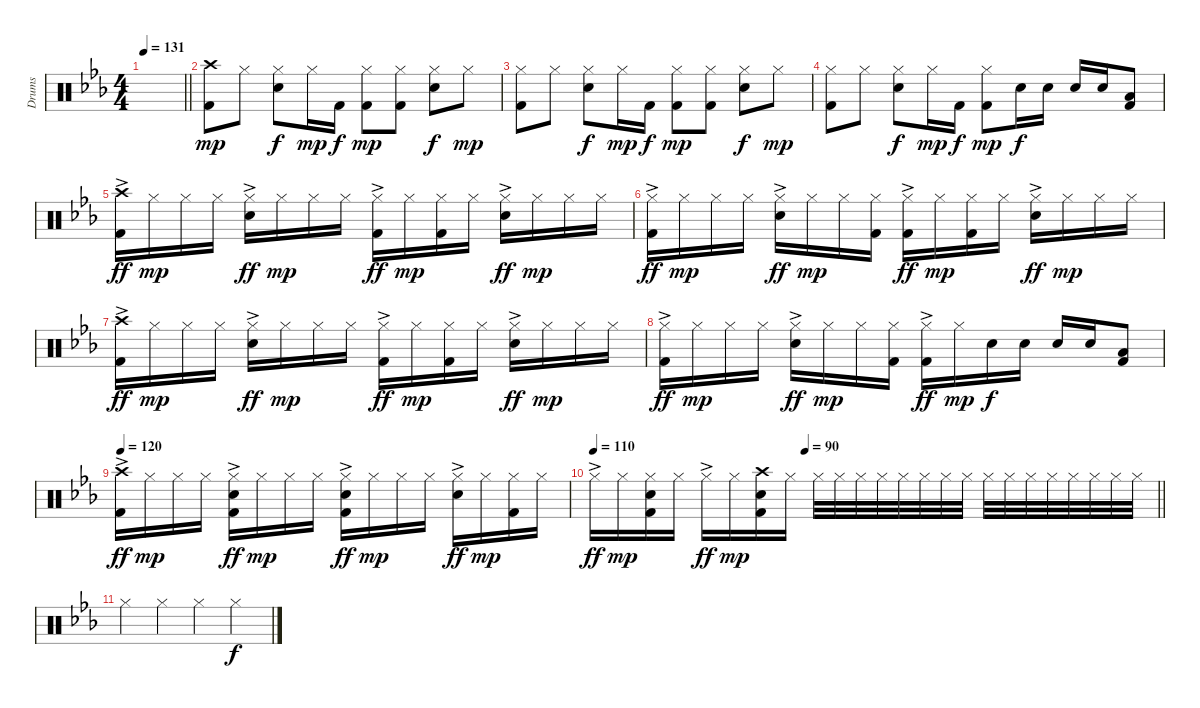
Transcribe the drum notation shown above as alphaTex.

\track ("Drums" "Drums") {instrument percussion}
\staff {score}
\articulation defaults
\ts (4 4)
\tempo 131
\clef neutral
\barLineRight lightlight
\ks eb
|
("Crash high (hit)" "Kick (hit) 2").8{dy mp} "Hi-Hat (closed)".8 ("Hi-Hat (closed)" "Snare (hit) 2").8{dy f} "Hi-Hat (closed)".16{dy mp} "Kick (hit) 2".16{dy f} ("Hi-Hat (closed)" "Kick (hit) 2").8{dy mp} ("Hi-Hat (closed)" "Kick (hit) 2").8 ("Hi-Hat (closed)" "Snare (hit) 2").8{dy f} "Hi-Hat (closed)".8{dy mp} |
("Hi-Hat (closed)" "Kick (hit) 2").8 "Hi-Hat (closed)".8 ("Hi-Hat (closed)" "Snare (hit) 2").8{dy f} "Hi-Hat (closed)".16{dy mp} "Kick (hit) 2".16{dy f} ("Hi-Hat (closed)" "Kick (hit) 2").8{dy mp} ("Hi-Hat (closed)" "Kick (hit) 2").8 ("Hi-Hat (closed)" "Snare (hit) 2").8{dy f} "Hi-Hat (closed)".8{dy mp} |
("Hi-Hat (closed)" "Kick (hit) 2").8 "Hi-Hat (closed)".8 ("Hi-Hat (closed)" "Snare (hit) 2").8{dy f} "Hi-Hat (closed)".16{dy mp} "Kick (hit) 2".16{dy f} ("Hi-Hat (closed)" "Kick (hit) 2").8{dy mp} "Snare (hit) 2".16{dy f} "Snare (hit) 2".16 "Snare (hit) 2".16 "Snare (hit) 2".16 ("Low Tom (hit)" "Kick (hit) 2").8 |
("Crash high (hit)"{ac} "Kick (hit) 2").16{dy ff} "Hi-Hat (closed)".16{dy mp} "Hi-Hat (closed)".16 "Hi-Hat (closed)".16 ("Hi-Hat (closed)"{ac} "Snare (hit) 2").16{dy ff} "Hi-Hat (closed)".16{dy mp} "Hi-Hat (closed)".16 "Hi-Hat (closed)".16 ("Hi-Hat (closed)"{ac} "Kick (hit) 2").16{dy ff} "Hi-Hat (closed)".16{dy mp} ("Hi-Hat (closed)" "Kick (hit) 2").16 "Hi-Hat (closed)".16 ("Hi-Hat (closed)"{ac} "Snare (hit) 2").16{dy ff} "Hi-Hat (closed)".16{dy mp} "Hi-Hat (closed)".16 "Hi-Hat (closed)".16 |
("Hi-Hat (closed)"{ac} "Kick (hit) 2").16{dy ff} "Hi-Hat (closed)".16{dy mp} "Hi-Hat (closed)".16 "Hi-Hat (closed)".16 ("Hi-Hat (closed)"{ac} "Snare (hit) 2").16{dy ff} "Hi-Hat (closed)".16{dy mp} "Hi-Hat (closed)".16 ("Hi-Hat (closed)" "Kick (hit) 2").16 ("Hi-Hat (closed)"{ac} "Kick (hit) 2").16{dy ff} "Hi-Hat (closed)".16{dy mp} ("Hi-Hat (closed)" "Kick (hit) 2").16 "Hi-Hat (closed)".16 ("Hi-Hat (closed)"{ac} "Snare (hit) 2").16{dy ff} "Hi-Hat (closed)".16{dy mp} "Hi-Hat (closed)".16 "Hi-Hat (closed)".16 |
("Crash high (hit)"{ac} "Kick (hit) 2").16{dy ff} "Hi-Hat (closed)".16{dy mp} "Hi-Hat (closed)".16 "Hi-Hat (closed)".16 ("Hi-Hat (closed)"{ac} "Snare (hit) 2").16{dy ff} "Hi-Hat (closed)".16{dy mp} "Hi-Hat (closed)".16 "Hi-Hat (closed)".16 ("Hi-Hat (closed)"{ac} "Kick (hit) 2").16{dy ff} "Hi-Hat (closed)".16{dy mp} ("Hi-Hat (closed)" "Kick (hit) 2").16 "Hi-Hat (closed)".16 ("Hi-Hat (closed)"{ac} "Snare (hit) 2").16{dy ff} "Hi-Hat (closed)".16{dy mp} "Hi-Hat (closed)".16 "Hi-Hat (closed)".16 |
("Hi-Hat (closed)"{ac} "Kick (hit) 2").16{dy ff} "Hi-Hat (closed)".16{dy mp} "Hi-Hat (closed)".16 "Hi-Hat (closed)".16 ("Hi-Hat (closed)"{ac} "Snare (hit) 2").16{dy ff} "Hi-Hat (closed)".16{dy mp} "Hi-Hat (closed)".16 ("Hi-Hat (closed)" "Kick (hit) 2").16 ("Hi-Hat (closed)"{ac} "Kick (hit) 2").16{dy ff} "Hi-Hat (closed)".16{dy mp} "Snare (hit) 2".16{dy f} "Snare (hit) 2".16 "Snare (hit) 2".16 "Snare (hit) 2".16 ("Low Tom (hit)" "Kick (hit) 2").8 |
\tempo 120
("Crash high (hit)"{ac} "Kick (hit) 2").16{dy ff} "Hi-Hat (closed)".16{dy mp} "Hi-Hat (closed)".16 "Hi-Hat (closed)".16 ("Hi-Hat (closed)"{ac} "Snare (hit) 2" "Kick (hit) 2").16{dy ff} "Hi-Hat (closed)".16{dy mp} "Hi-Hat (closed)".16 "Hi-Hat (closed)".16 ("Hi-Hat (closed)"{ac} "Snare (hit) 2" "Kick (hit) 2").16{dy ff} "Hi-Hat (closed)".16{dy mp} "Hi-Hat (closed)".16 "Hi-Hat (closed)".16 ("Hi-Hat (closed)"{ac} "Snare (hit) 2").16{dy ff} "Hi-Hat (closed)".16{dy mp} ("Hi-Hat (closed)" "Kick (hit) 2").16 "Hi-Hat (closed)".16 |
\tempo 110
\tempo (90 0.375)
\barLineRight lightlight "Hi-Hat (closed)"{ac}.16{dy ff} "Hi-Hat (closed)".16{dy mp}
("Hi-Hat (closed)" "Snare (hit) 2" "Kick (hit) 2").16 "Hi-Hat (closed)".16 "Hi-Hat (closed)"{ac}.16{dy ff} "Hi-Hat (closed)".16{dy mp} ("Crash high (hit)" "Snare (hit) 2" "Kick (hit) 2").16 "Hi-Hat (closed)".16 "Hi-Hat (closed)".32 "Hi-Hat (closed)".32 "Hi-Hat (closed)".32 "Hi-Hat (closed)".32 "Hi-Hat (closed)".32 "Hi-Hat (closed)".32 "Hi-Hat (closed)".32 "Hi-Hat (closed)".32 "Hi-Hat (closed)".32 "Hi-Hat (closed)".32 "Hi-Hat (closed)".32 "Hi-Hat (closed)".32 "Hi-Hat (closed)".32 "Hi-Hat (closed)".32 "Hi-Hat (closed)".32 "Hi-Hat (closed)".32 |
"Hi-Hat (closed)".4 "Hi-Hat (closed)".4 "Hi-Hat (closed)".4 "Hi-Hat (closed)".4{dy f}
